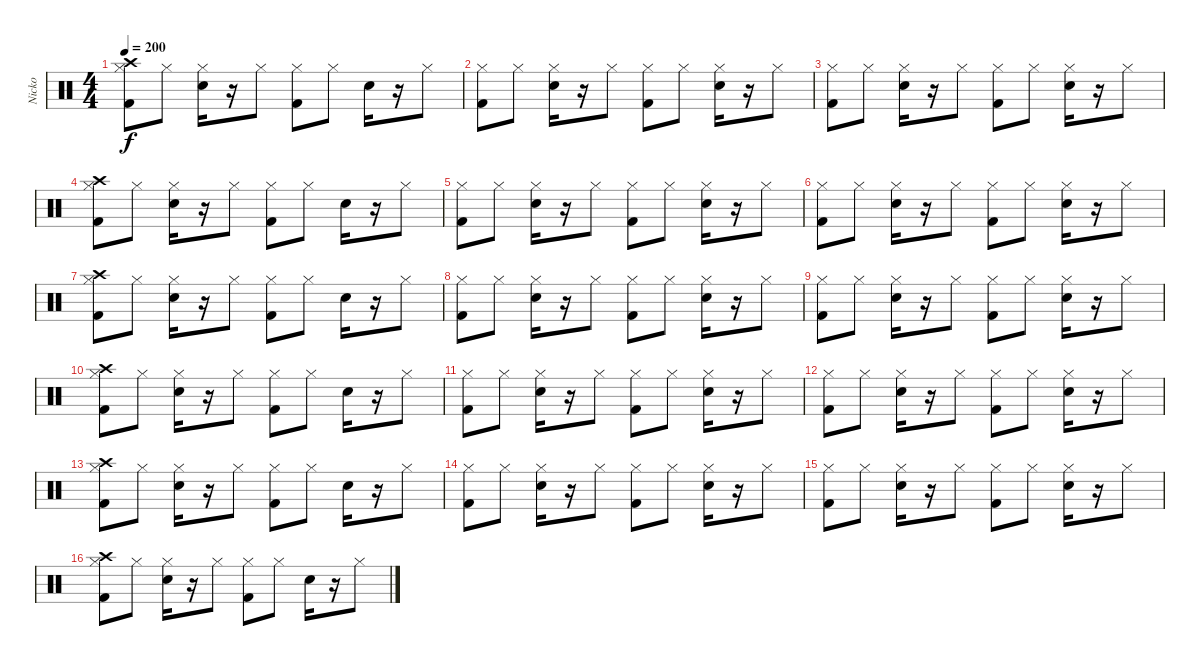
\track ("Nicko" "Nicko") {instrument percussion}
\staff {score}
\articulation defaults
\ts (4 4)
\tempo 200
\clef neutral
\ks c
("Kick (hit) 2" "Hi-Hat (closed)" "Crash high (hit)").8{dy f} "Hi-Hat (closed)".8 ("Snare (hit) 2" "Hi-Hat (closed)").16 r.16 "Hi-Hat (closed)".8 ("Kick (hit) 2" "Hi-Hat (closed)").8 "Hi-Hat (closed)".8 "Snare (hit) 2".16 r.16 "Hi-Hat (closed)".8 |
("Kick (hit) 2" "Hi-Hat (closed)").8 "Hi-Hat (closed)".8 ("Snare (hit) 2" "Hi-Hat (closed)").16 r.16 "Hi-Hat (closed)".8 ("Kick (hit) 2" "Hi-Hat (closed)").8 "Hi-Hat (closed)".8 ("Snare (hit) 2" "Hi-Hat (closed)").16 r.16 "Hi-Hat (closed)".8 |
("Kick (hit) 2" "Hi-Hat (closed)").8 "Hi-Hat (closed)".8 ("Snare (hit) 2" "Hi-Hat (closed)").16 r.16 "Hi-Hat (closed)".8 ("Kick (hit) 2" "Hi-Hat (closed)").8 "Hi-Hat (closed)".8 ("Snare (hit) 2" "Hi-Hat (closed)").16 r.16 "Hi-Hat (closed)".8 |
("Kick (hit) 2" "Hi-Hat (closed)" "Crash high (hit)").8 "Hi-Hat (closed)".8 ("Snare (hit) 2" "Hi-Hat (closed)").16 r.16 "Hi-Hat (closed)".8 ("Kick (hit) 2" "Hi-Hat (closed)").8 "Hi-Hat (closed)".8 "Snare (hit) 2".16 r.16 "Hi-Hat (closed)".8 |
("Kick (hit) 2" "Hi-Hat (closed)").8 "Hi-Hat (closed)".8 ("Snare (hit) 2" "Hi-Hat (closed)").16 r.16 "Hi-Hat (closed)".8 ("Kick (hit) 2" "Hi-Hat (closed)").8 "Hi-Hat (closed)".8 ("Snare (hit) 2" "Hi-Hat (closed)").16 r.16 "Hi-Hat (closed)".8 |
("Kick (hit) 2" "Hi-Hat (closed)").8 "Hi-Hat (closed)".8 ("Snare (hit) 2" "Hi-Hat (closed)").16 r.16 "Hi-Hat (closed)".8 ("Kick (hit) 2" "Hi-Hat (closed)").8 "Hi-Hat (closed)".8 ("Snare (hit) 2" "Hi-Hat (closed)").16 r.16 "Hi-Hat (closed)".8 |
("Kick (hit) 2" "Hi-Hat (closed)" "Crash high (hit)").8 "Hi-Hat (closed)".8 ("Snare (hit) 2" "Hi-Hat (closed)").16 r.16 "Hi-Hat (closed)".8 ("Kick (hit) 2" "Hi-Hat (closed)").8 "Hi-Hat (closed)".8 "Snare (hit) 2".16 r.16 "Hi-Hat (closed)".8 |
("Kick (hit) 2" "Hi-Hat (closed)").8 "Hi-Hat (closed)".8 ("Snare (hit) 2" "Hi-Hat (closed)").16 r.16 "Hi-Hat (closed)".8 ("Kick (hit) 2" "Hi-Hat (closed)").8 "Hi-Hat (closed)".8 ("Snare (hit) 2" "Hi-Hat (closed)").16 r.16 "Hi-Hat (closed)".8 |
("Kick (hit) 2" "Hi-Hat (closed)").8 "Hi-Hat (closed)".8 ("Snare (hit) 2" "Hi-Hat (closed)").16 r.16 "Hi-Hat (closed)".8 ("Kick (hit) 2" "Hi-Hat (closed)").8 "Hi-Hat (closed)".8 ("Snare (hit) 2" "Hi-Hat (closed)").16 r.16 "Hi-Hat (closed)".8 |
("Kick (hit) 2" "Hi-Hat (closed)" "Crash high (hit)").8 "Hi-Hat (closed)".8 ("Snare (hit) 2" "Hi-Hat (closed)").16 r.16 "Hi-Hat (closed)".8 ("Kick (hit) 2" "Hi-Hat (closed)").8 "Hi-Hat (closed)".8 "Snare (hit) 2".16 r.16 "Hi-Hat (closed)".8 |
("Kick (hit) 2" "Hi-Hat (closed)").8 "Hi-Hat (closed)".8 ("Snare (hit) 2" "Hi-Hat (closed)").16 r.16 "Hi-Hat (closed)".8 ("Kick (hit) 2" "Hi-Hat (closed)").8 "Hi-Hat (closed)".8 ("Snare (hit) 2" "Hi-Hat (closed)").16 r.16 "Hi-Hat (closed)".8 |
("Kick (hit) 2" "Hi-Hat (closed)").8 "Hi-Hat (closed)".8 ("Snare (hit) 2" "Hi-Hat (closed)").16 r.16 "Hi-Hat (closed)".8 ("Kick (hit) 2" "Hi-Hat (closed)").8 "Hi-Hat (closed)".8 ("Snare (hit) 2" "Hi-Hat (closed)").16 r.16 "Hi-Hat (closed)".8 |
("Kick (hit) 2" "Hi-Hat (closed)" "Crash high (hit)").8 "Hi-Hat (closed)".8 ("Snare (hit) 2" "Hi-Hat (closed)").16 r.16 "Hi-Hat (closed)".8 ("Kick (hit) 2" "Hi-Hat (closed)").8 "Hi-Hat (closed)".8 "Snare (hit) 2".16 r.16 "Hi-Hat (closed)".8 |
("Kick (hit) 2" "Hi-Hat (closed)").8 "Hi-Hat (closed)".8 ("Snare (hit) 2" "Hi-Hat (closed)").16 r.16 "Hi-Hat (closed)".8 ("Kick (hit) 2" "Hi-Hat (closed)").8 "Hi-Hat (closed)".8 ("Snare (hit) 2" "Hi-Hat (closed)").16 r.16 "Hi-Hat (closed)".8 |
("Kick (hit) 2" "Hi-Hat (closed)").8 "Hi-Hat (closed)".8 ("Snare (hit) 2" "Hi-Hat (closed)").16 r.16 "Hi-Hat (closed)".8 ("Kick (hit) 2" "Hi-Hat (closed)").8 "Hi-Hat (closed)".8 ("Snare (hit) 2" "Hi-Hat (closed)").16 r.16 "Hi-Hat (closed)".8 |
("Kick (hit) 2" "Hi-Hat (closed)" "Crash high (hit)").8 "Hi-Hat (closed)".8 ("Snare (hit) 2" "Hi-Hat (closed)").16 r.16 "Hi-Hat (closed)".8 ("Kick (hit) 2" "Hi-Hat (closed)").8 "Hi-Hat (closed)".8 "Snare (hit) 2".16 r.16 "Hi-Hat (closed)".8
